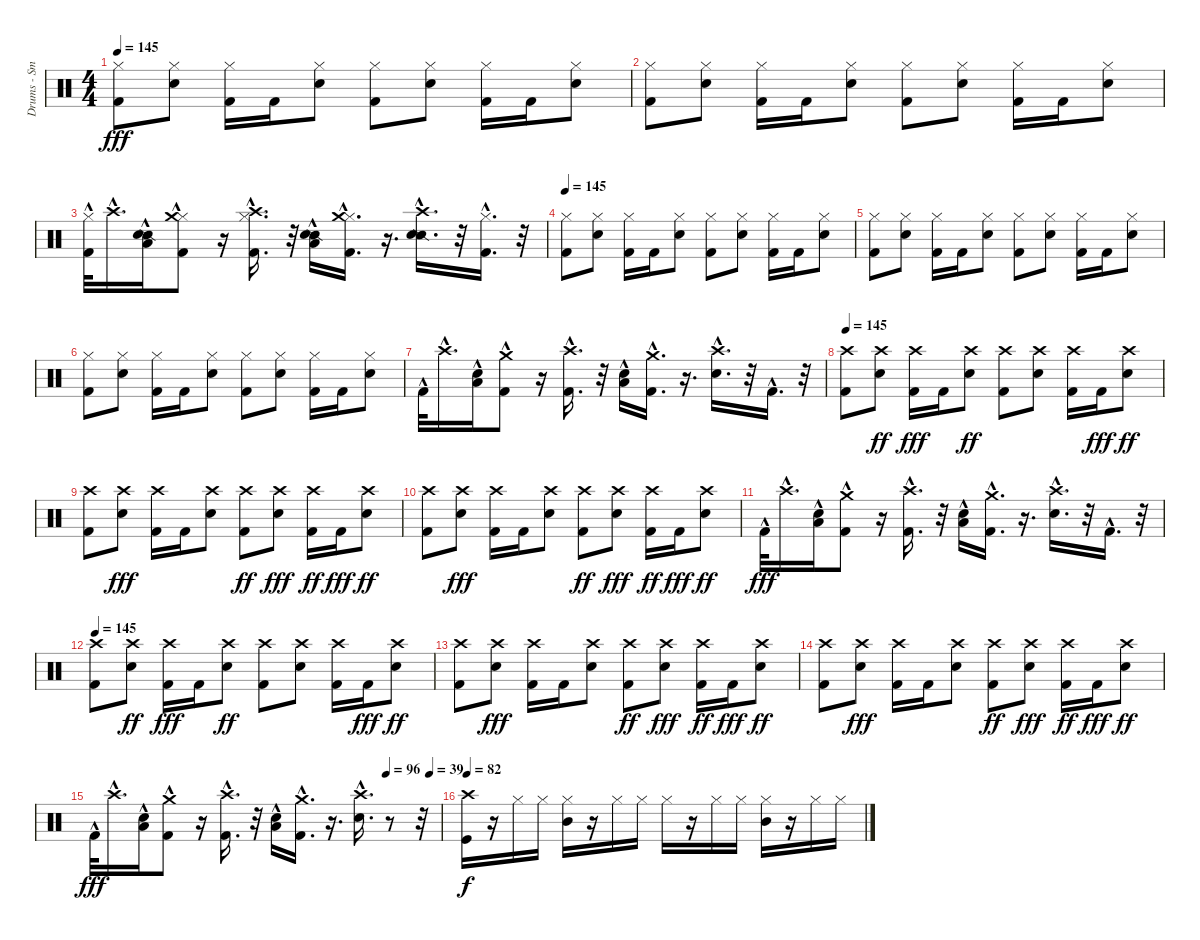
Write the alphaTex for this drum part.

\track ("Drums - Smelly" "Drums - Sm") {instrument percussion}
\staff {score}
\articulation defaults
\ts (4 4)
\tempo 145
\clef neutral
\ks c
("Kick (hit) 2" "Hi-Hat (closed)").8{dy fff} ("Hi-Hat (closed)" "Electric Snare (hit)").8 ("Hi-Hat (closed)" "Kick (hit) 2").16 "Kick (hit) 2".16 ("Hi-Hat (closed)" "Electric Snare (hit)").8 ("Kick (hit) 2" "Hi-Hat (closed)").8 ("Hi-Hat (closed)" "Electric Snare (hit)").8 ("Kick (hit) 2" "Hi-Hat (closed)").16 "Kick (hit) 2".16 ("Electric Snare (hit)" "Hi-Hat (closed)").8 |
("Kick (hit) 2" "Hi-Hat (closed)").8 ("Hi-Hat (closed)" "Electric Snare (hit)").8 ("Hi-Hat (closed)" "Kick (hit) 2").16 "Kick (hit) 2".16 ("Hi-Hat (closed)" "Electric Snare (hit)").8 ("Kick (hit) 2" "Hi-Hat (closed)").8 ("Hi-Hat (closed)" "Electric Snare (hit)").8 ("Kick (hit) 2" "Hi-Hat (closed)").16 "Kick (hit) 2".16 ("Electric Snare (hit)" "Hi-Hat (closed)").8 |
("Hi-Hat (closed)"{hac} "Kick (hit) 2"{hac}).32 "Crash high (hit)"{hac}.16{d} ("Snare (side stick) 2"{hac} "Low Tom (hit)" "Electric Snare (hit)"{hac}).16 ("Hi-Hat (closed)"{hac} "Kick (hit) 2"{hac} "Crash medium (hit)").8 r.16 ("Hi-Hat (closed)"{hac} "Kick (hit) 2"{hac} "Crash high (hit)"{hac}).16{d} r.32 ("Snare (side stick) 2"{hac} "Low Tom (hit)" "Electric Snare (hit)"{hac}).16 ("Hi-Hat (closed)"{hac} "Crash medium (hit)"{hac} "Kick (hit) 2"{hac}).16{d} r.16{d} ("Snare (side stick) 2"{hac} "Electric Snare (hit)"{hac} "Crash high (hit)"{hac}).16{d} r.32 ("Hi-Hat (closed)"{hac} "Kick (hit) 2"{hac}).16{d} r.32 |
\tempo 145
("Kick (hit) 2" "Hi-Hat (closed)").8 ("Electric Snare (hit)" "Hi-Hat (closed)").8 ("Hi-Hat (closed)" "Kick (hit) 2").16 "Kick (hit) 2".16 ("Electric Snare (hit)" "Hi-Hat (closed)").8 ("Kick (hit) 2" "Hi-Hat (closed)").8 ("Electric Snare (hit)" "Hi-Hat (closed)").8 ("Kick (hit) 2" "Hi-Hat (closed)").16 "Kick (hit) 2".16 ("Electric Snare (hit)" "Hi-Hat (closed)").8 |
("Kick (hit) 2" "Hi-Hat (closed)").8 ("Hi-Hat (closed)" "Electric Snare (hit)").8 ("Hi-Hat (closed)" "Kick (hit) 2").16 "Kick (hit) 2".16 ("Hi-Hat (closed)" "Electric Snare (hit)").8 ("Kick (hit) 2" "Hi-Hat (closed)").8 ("Hi-Hat (closed)" "Electric Snare (hit)").8 ("Kick (hit) 2" "Hi-Hat (closed)").16 "Kick (hit) 2".16 ("Electric Snare (hit)" "Hi-Hat (closed)").8 |
("Kick (hit) 2" "Hi-Hat (closed)").8 ("Hi-Hat (closed)" "Electric Snare (hit)").8 ("Hi-Hat (closed)" "Kick (hit) 2").16 "Kick (hit) 2".16 ("Hi-Hat (closed)" "Electric Snare (hit)").8 ("Kick (hit) 2" "Hi-Hat (closed)").8 ("Hi-Hat (closed)" "Electric Snare (hit)").8 ("Kick (hit) 2" "Hi-Hat (closed)").16 "Kick (hit) 2".16 ("Electric Snare (hit)" "Hi-Hat (closed)").8 |
"Kick (hit) 2"{hac}.32 "Crash high (hit)"{hac}.16{d} ("Low Tom (hit)" "Electric Snare (hit)"{hac}).16 ("Kick (hit) 2"{hac} "Crash medium (hit)").8 r.16 ("Kick (hit) 2"{hac} "Crash high (hit)"{hac}).16{d} r.32 ("Low Tom (hit)" "Electric Snare (hit)"{hac}).16 ("Crash medium (hit)"{hac} "Kick (hit) 2"{hac}).16{d} r.16{d} ("Electric Snare (hit)"{hac} "Crash high (hit)"{hac}).16{d} r.32 "Kick (hit) 2"{hac}.16{d} r.32 |
\tempo 145
("Kick (hit) 2" "Crash high (hit)").8 ("Electric Snare (hit)" "Crash high (hit)").8{dy ff} ("Crash high (hit)" "Kick (hit) 2").16{dy fff} "Kick (hit) 2".16 ("Electric Snare (hit)" "Crash high (hit)").8{dy ff} ("Kick (hit) 2" "Crash high (hit)").8 ("Electric Snare (hit)" "Crash high (hit)").8 ("Kick (hit) 2" "Crash high (hit)").16 "Kick (hit) 2".16{dy fff} ("Electric Snare (hit)" "Crash high (hit)").8{dy ff} |
("Kick (hit) 2" "Crash high (hit)").8 ("Crash high (hit)" "Electric Snare (hit)").8{dy fff} ("Crash high (hit)" "Kick (hit) 2").16 "Kick (hit) 2".16 ("Crash high (hit)" "Electric Snare (hit)").8 ("Kick (hit) 2" "Crash high (hit)").8{dy ff} ("Crash high (hit)" "Electric Snare (hit)").8{dy fff} ("Kick (hit) 2" "Crash high (hit)").16{dy ff} "Kick (hit) 2".16{dy fff} ("Electric Snare (hit)" "Crash high (hit)").8{dy ff} |
("Kick (hit) 2" "Crash high (hit)").8 ("Crash high (hit)" "Electric Snare (hit)").8{dy fff} ("Crash high (hit)" "Kick (hit) 2").16 "Kick (hit) 2".16 ("Crash high (hit)" "Electric Snare (hit)").8 ("Kick (hit) 2" "Crash high (hit)").8{dy ff} ("Crash high (hit)" "Electric Snare (hit)").8{dy fff} ("Kick (hit) 2" "Crash high (hit)").16{dy ff} "Kick (hit) 2".16{dy fff} ("Electric Snare (hit)" "Crash high (hit)").8{dy ff} |
"Kick (hit) 2"{hac}.32{dy fff} "Crash high (hit)"{hac}.16{d} ("Low Tom (hit)" "Electric Snare (hit)"{hac}).16 ("Kick (hit) 2"{hac} "Crash medium (hit)").8 r.16 ("Kick (hit) 2"{hac} "Crash high (hit)"{hac}).16{d} r.32 ("Low Tom (hit)" "Electric Snare (hit)"{hac}).16 ("Crash medium (hit)"{hac} "Kick (hit) 2"{hac}).16{d} r.16{d} ("Electric Snare (hit)"{hac} "Crash high (hit)"{hac}).16{d} r.32 "Kick (hit) 2"{hac}.16{d} r.32 |
\tempo 145
("Kick (hit) 2" "Crash high (hit)").8 ("Electric Snare (hit)" "Crash high (hit)").8{dy ff} ("Crash high (hit)" "Kick (hit) 2").16{dy fff} "Kick (hit) 2".16 ("Electric Snare (hit)" "Crash high (hit)").8{dy ff} ("Kick (hit) 2" "Crash high (hit)").8 ("Electric Snare (hit)" "Crash high (hit)").8 ("Kick (hit) 2" "Crash high (hit)").16 "Kick (hit) 2".16{dy fff} ("Electric Snare (hit)" "Crash high (hit)").8{dy ff} |
("Kick (hit) 2" "Crash high (hit)").8 ("Crash high (hit)" "Electric Snare (hit)").8{dy fff} ("Crash high (hit)" "Kick (hit) 2").16 "Kick (hit) 2".16 ("Crash high (hit)" "Electric Snare (hit)").8 ("Kick (hit) 2" "Crash high (hit)").8{dy ff} ("Crash high (hit)" "Electric Snare (hit)").8{dy fff} ("Kick (hit) 2" "Crash high (hit)").16{dy ff} "Kick (hit) 2".16{dy fff} ("Electric Snare (hit)" "Crash high (hit)").8{dy ff} |
("Kick (hit) 2" "Crash high (hit)").8 ("Crash high (hit)" "Electric Snare (hit)").8{dy fff} ("Crash high (hit)" "Kick (hit) 2").16 "Kick (hit) 2".16 ("Crash high (hit)" "Electric Snare (hit)").8 ("Kick (hit) 2" "Crash high (hit)").8{dy ff} ("Crash high (hit)" "Electric Snare (hit)").8{dy fff} ("Kick (hit) 2" "Crash high (hit)").16{dy ff} "Kick (hit) 2".16{dy fff} ("Electric Snare (hit)" "Crash high (hit)").8{dy ff} |
\tempo (96 0.84375)
\tempo (39 0.96875)
"Kick (hit) 2"{hac}.32{dy fff} "Crash high (hit)"{hac}.16{d} ("Low Tom (hit)" "Electric Snare (hit)"{hac}).16 ("Kick (hit) 2"{hac} "Crash medium (hit)").8 r.16 ("Kick (hit) 2"{hac} "Crash high (hit)"{hac}).16{d} r.32 ("Low Tom (hit)" "Electric Snare (hit)"{hac}).16 ("Crash medium (hit)"{hac} "Kick (hit) 2"{hac}).16{d} r.16{d} ("Electric Snare (hit)"{hac} "Crash high (hit)"{hac}).16{d} r.8 r.32 |
\tempo 82
("Kick (hit)" "Crash high (hit)").16{dy f} r.16 "Hi-Hat (closed)".16 "Hi-Hat (closed)".16 ("Hi-Hat (closed)" "Mid Tom (hit)").16 r.16 "Hi-Hat (closed)".16 "Hi-Hat (closed)".16 "Hi-Hat (closed)".16 r.16 "Hi-Hat (closed)".16 "Hi-Hat (closed)".16 ("Hi-Hat (closed)" "Mid Tom (hit)").16 r.16 "Hi-Hat (closed)".16 "Hi-Hat (closed)".16
